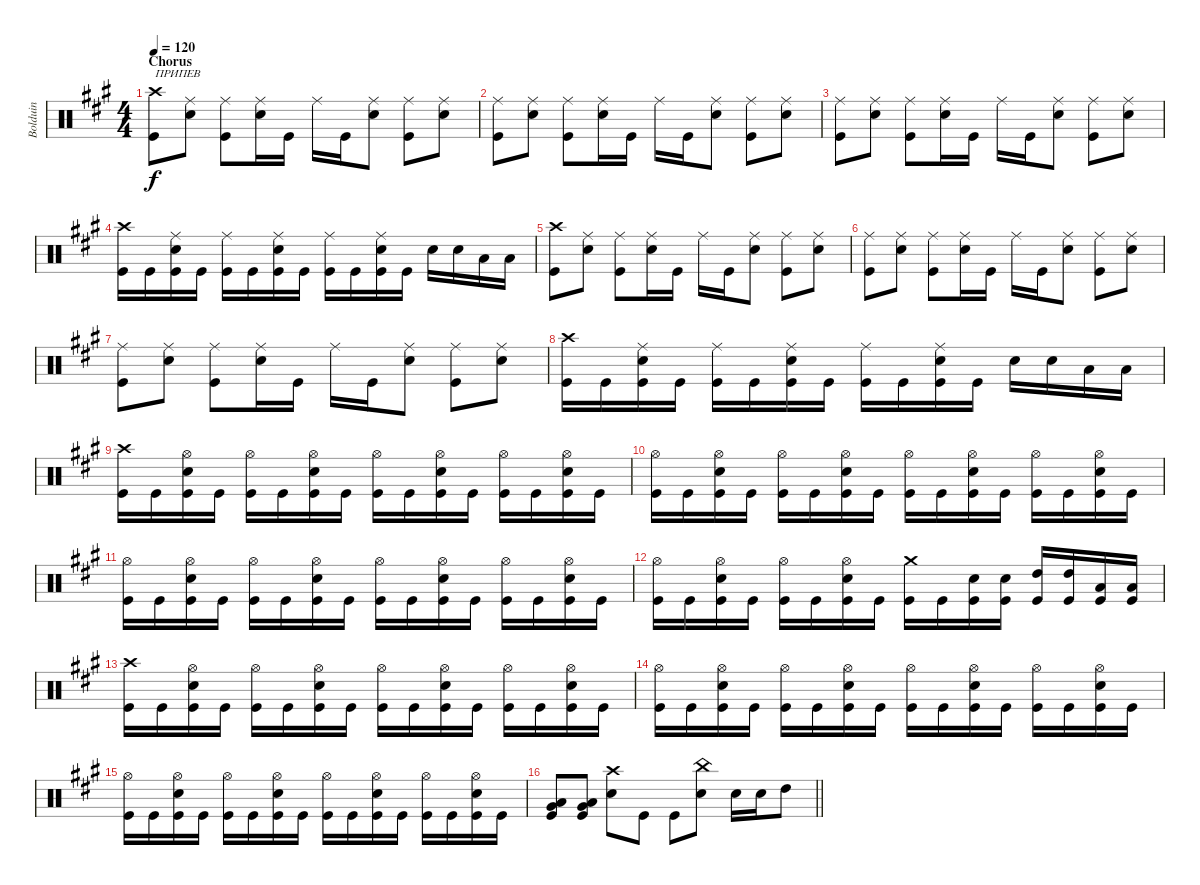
\track ("Bolduin" "Bolduin") {instrument percussion}
\staff {score}
\articulation defaults
\ts (4 4)
\section ("" "Chorus")
\tempo 120
\clef neutral
\ks f#minor
("Kick (hit)" "Crash high (hit)").8{txt "ПРИПЕВ" dy f} ("Snare (hit) 2" "Ride (middle)").8 ("Kick (hit)" "Ride (middle)").8 ("Snare (hit) 2" "Ride (middle)").16 "Kick (hit)".16 "Ride (middle)".16 "Kick (hit)".16 ("Snare (hit) 2" "Ride (middle)").8 ("Kick (hit)" "Ride (middle)").8 ("Snare (hit) 2" "Ride (middle)").8 |
("Kick (hit)" "Ride (middle)").8 ("Snare (hit) 2" "Ride (middle)").8 ("Kick (hit)" "Ride (middle)").8 ("Snare (hit) 2" "Ride (middle)").16 "Kick (hit)".16 "Ride (middle)".16 "Kick (hit)".16 ("Snare (hit) 2" "Ride (middle)").8 ("Kick (hit)" "Ride (middle)").8 ("Snare (hit) 2" "Ride (middle)").8 |
("Kick (hit)" "Ride (middle)").8 ("Snare (hit) 2" "Ride (middle)").8 ("Kick (hit)" "Ride (middle)").8 ("Snare (hit) 2" "Ride (middle)").16 "Kick (hit)".16 "Ride (middle)".16 "Kick (hit)".16 ("Snare (hit) 2" "Ride (middle)").8 ("Kick (hit)" "Ride (middle)").8 ("Snare (hit) 2" "Ride (middle)").8 |
("Kick (hit)" "Crash high (hit)").16 "Kick (hit)".16 ("Kick (hit)" "Ride (middle)" "Snare (hit) 2").16 "Kick (hit)".16 ("Kick (hit)" "Ride (middle)").16 "Kick (hit)".16 ("Kick (hit)" "Ride (middle)" "Snare (hit) 2").16 "Kick (hit)".16 ("Kick (hit)" "Ride (middle)").16 "Kick (hit)".16 ("Kick (hit)" "Ride (middle)" "Snare (hit) 2").16 "Kick (hit)".16 "Snare (hit) 2".16 "Snare (hit) 2".16 "Low Tom (hit)".16 "Low Tom (hit)".16 |
("Kick (hit)" "Crash high (hit)").8 ("Snare (hit) 2" "Ride (middle)").8 ("Kick (hit)" "Ride (middle)").8 ("Snare (hit) 2" "Ride (middle)").16 "Kick (hit)".16 "Ride (middle)".16 "Kick (hit)".16 ("Snare (hit) 2" "Ride (middle)").8 ("Kick (hit)" "Ride (middle)").8 ("Snare (hit) 2" "Ride (middle)").8 |
("Kick (hit)" "Ride (middle)").8 ("Snare (hit) 2" "Ride (middle)").8 ("Kick (hit)" "Ride (middle)").8 ("Snare (hit) 2" "Ride (middle)").16 "Kick (hit)".16 "Ride (middle)".16 "Kick (hit)".16 ("Snare (hit) 2" "Ride (middle)").8 ("Kick (hit)" "Ride (middle)").8 ("Snare (hit) 2" "Ride (middle)").8 |
("Kick (hit)" "Ride (middle)").8 ("Snare (hit) 2" "Ride (middle)").8 ("Kick (hit)" "Ride (middle)").8 ("Snare (hit) 2" "Ride (middle)").16 "Kick (hit)".16 "Ride (middle)".16 "Kick (hit)".16 ("Ride (middle)" "Snare (hit) 2").8 ("Kick (hit)" "Ride (middle)").8 ("Snare (hit) 2" "Ride (middle)").8 |
("Kick (hit)" "Crash high (hit)").16 "Kick (hit)".16 ("Kick (hit)" "Ride (middle)" "Snare (hit) 2").16 "Kick (hit)".16 ("Kick (hit)" "Ride (middle)").16 "Kick (hit)".16 ("Kick (hit)" "Ride (middle)" "Snare (hit) 2").16 "Kick (hit)".16 ("Kick (hit)" "Ride (middle)").16 "Kick (hit)".16 ("Kick (hit)" "Ride (middle)" "Snare (hit) 2").16 "Kick (hit)".16 "Snare (hit) 2".16 "Snare (hit) 2".16 "Low Tom (hit)".16 "Low Tom (hit)".16 |
("Kick (hit)" "Crash high (hit)").16 "Kick (hit)".16 ("Kick (hit)" "Snare (hit) 2" "Hi-Hat (open)").16 "Kick (hit)".16 ("Kick (hit)" "Hi-Hat (open)").16 "Kick (hit)".16 ("Kick (hit)" "Snare (hit) 2" "Hi-Hat (open)").16 "Kick (hit)".16 ("Kick (hit)" "Hi-Hat (open)").16 "Kick (hit)".16 ("Kick (hit)" "Snare (hit) 2" "Hi-Hat (open)").16 "Kick (hit)".16 ("Kick (hit)" "Hi-Hat (open)").16 "Kick (hit)".16 ("Kick (hit)" "Snare (hit) 2" "Hi-Hat (open)").16 "Kick (hit)".16 |
("Kick (hit)" "Hi-Hat (open)").16 "Kick (hit)".16 ("Kick (hit)" "Snare (hit) 2" "Hi-Hat (open)").16 "Kick (hit)".16 ("Kick (hit)" "Hi-Hat (open)").16 "Kick (hit)".16 ("Kick (hit)" "Snare (hit) 2" "Hi-Hat (open)").16 "Kick (hit)".16 ("Kick (hit)" "Hi-Hat (open)").16 "Kick (hit)".16 ("Kick (hit)" "Snare (hit) 2" "Hi-Hat (open)").16 "Kick (hit)".16 ("Kick (hit)" "Hi-Hat (open)").16 "Kick (hit)".16 ("Kick (hit)" "Snare (hit) 2" "Hi-Hat (open)").16 "Kick (hit)".16 |
("Kick (hit)" "Hi-Hat (open)").16 "Kick (hit)".16 ("Snare (hit) 2" "Kick (hit)" "Hi-Hat (open)").16 "Kick (hit)".16 ("Kick (hit)" "Hi-Hat (open)").16 "Kick (hit)".16 ("Kick (hit)" "Snare (hit) 2" "Hi-Hat (open)").16 "Kick (hit)".16 ("Kick (hit)" "Hi-Hat (open)").16 "Kick (hit)".16 ("Kick (hit)" "Snare (hit) 2" "Hi-Hat (open)").16 "Kick (hit)".16 ("Kick (hit)" "Hi-Hat (open)").16 "Kick (hit)".16 ("Kick (hit)" "Snare (hit) 2" "Hi-Hat (open)").16 "Kick (hit)".16 |
("Kick (hit)" "Hi-Hat (open)").16 "Kick (hit)".16 ("Snare (hit) 2" "Kick (hit)" "Hi-Hat (open)").16 "Kick (hit)".16 ("Kick (hit)" "Hi-Hat (open)").16 "Kick (hit)".16 ("Kick (hit)" "Snare (hit) 2" "Hi-Hat (open)").16 "Kick (hit)".16 ("Kick (hit)" "Crash medium (hit)").16 "Kick (hit)".16 ("Kick (hit)" "Snare (hit) 2").16 ("Kick (hit)" "Snare (hit) 2").16 ("Kick (hit)" "High Tom (hit)").16 ("Kick (hit)" "High Tom (hit)").16 ("Kick (hit)" "Low Tom (hit)").16 ("Kick (hit)" "Low Tom (hit)").16 |
("Kick (hit)" "Crash high (hit)").16 "Kick (hit)".16 ("Snare (hit) 2" "Kick (hit)" "Hi-Hat (open)").16 "Kick (hit)".16 ("Kick (hit)" "Hi-Hat (open)").16 "Kick (hit)".16 ("Kick (hit)" "Snare (hit) 2" "Hi-Hat (open)").16 "Kick (hit)".16 ("Kick (hit)" "Hi-Hat (open)").16 "Kick (hit)".16 ("Kick (hit)" "Snare (hit) 2" "Hi-Hat (open)").16 "Kick (hit)".16 ("Kick (hit)" "Hi-Hat (open)").16 "Kick (hit)".16 ("Kick (hit)" "Snare (hit) 2" "Hi-Hat (open)").16 "Kick (hit)".16 |
("Kick (hit)" "Hi-Hat (open)").16 "Kick (hit)".16 ("Snare (hit) 2" "Kick (hit)" "Hi-Hat (open)").16 "Kick (hit)".16 ("Kick (hit)" "Hi-Hat (open)").16 "Kick (hit)".16 ("Kick (hit)" "Snare (hit) 2" "Hi-Hat (open)").16 "Kick (hit)".16 ("Kick (hit)" "Hi-Hat (open)").16 "Kick (hit)".16 ("Kick (hit)" "Snare (hit) 2" "Hi-Hat (open)").16 "Kick (hit)".16 ("Kick (hit)" "Hi-Hat (open)").16 "Kick (hit)".16 ("Kick (hit)" "Snare (hit) 2" "Hi-Hat (open)").16 "Kick (hit)".16 |
("Kick (hit)" "Hi-Hat (open)").16 "Kick (hit)".16 ("Snare (hit) 2" "Kick (hit)" "Hi-Hat (open)").16 "Kick (hit)".16 ("Kick (hit)" "Hi-Hat (open)").16 "Kick (hit)".16 ("Kick (hit)" "Snare (hit) 2" "Hi-Hat (open)").16 "Kick (hit)".16 ("Kick (hit)" "Hi-Hat (open)").16 "Kick (hit)".16 ("Kick (hit)" "Snare (hit) 2" "Hi-Hat (open)").16 "Kick (hit)".16 ("Kick (hit)" "Hi-Hat (open)").16 "Kick (hit)".16 ("Kick (hit)" "Snare (hit) 2" "Hi-Hat (open)").16 "Kick (hit)".16 |
\barLineRight lightlight
("Kick (hit)" "Low Tom (hit)" "Very Low Tom (hit)").8 ("Kick (hit)" "Low Tom (hit)" "Very Low Tom (hit)").8 ("Crash high (hit)" "Snare (hit) 2").8 "Kick (hit)".8 "Kick (hit)".8 ("Snare (hit) 2" "China (hit)").8 "Snare (hit) 2".16 "Snare (hit) 2".16 "High Tom (hit)".8
